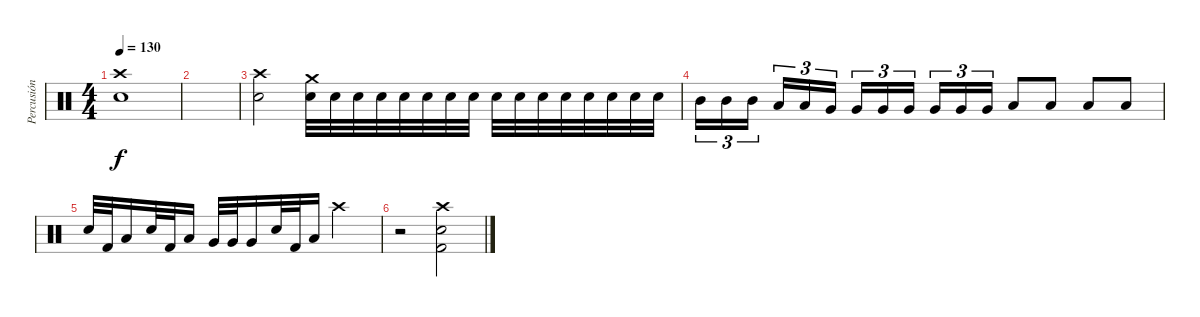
\track ("Percusión" "Percusión") {instrument percussion}
\staff {score}
\articulation defaults
\ts (4 4)
\tempo 130
\clef neutral
\ks c
("Crash high (hit)" "Electric Snare (hit)").1{dy f} |
|
("Crash high (hit)" "Electric Snare (hit)").2 ("Crash medium (hit)" "Electric Snare (hit)").32 "Electric Snare (hit)".32 "Electric Snare (hit)".32 "Electric Snare (hit)".32 "Electric Snare (hit)".32 "Electric Snare (hit)".32 "Electric Snare (hit)".32 "Electric Snare (hit)".32 "Electric Snare (hit)".32 "Electric Snare (hit)".32 "Electric Snare (hit)".32 "Electric Snare (hit)".32 "Electric Snare (hit)".32 "Electric Snare (hit)".32 "Electric Snare (hit)".32 "Electric Snare (hit)".32 |
"Mid Tom (hit)".16{tu (3 2)} "Mid Tom (hit)".16{tu (3 2)} "Mid Tom (hit)".16{tu (3 2)} "Low Tom (hit)".16{tu (3 2)} "Low Tom (hit)".16{tu (3 2)} "Very Low Tom (hit)".16{tu (3 2)} "Very Low Tom (hit)".16{tu (3 2)} "Very Low Tom (hit)".16{tu (3 2)} "Very Low Tom (hit)".16{tu (3 2)} "Very Low Tom (hit)".16{tu (3 2)} "Very Low Tom (hit)".16{tu (3 2)} "Very Low Tom (hit)".16{tu (3 2)} "Low Tom (hit)".8 "Low Tom (hit)".8 "Low Tom (hit)".8 "Low Tom (hit)".8 |
"Electric Snare (hit)".32 "Kick (hit) 2".32 "Low Tom (hit)".16 "Electric Snare (hit)".32 "Kick (hit) 2".32 "Low Tom (hit)".16 "Very Low Tom (hit)".32 "Very Low Tom (hit)".32 "Very Low Tom (hit)".16 "Electric Snare (hit)".32 "Kick (hit) 2".32 "Low Tom (hit)".16 "Crash high (hit)".2 |
r.2 ("Crash high (hit)" "Electric Snare (hit)" "Kick (hit) 2").2
